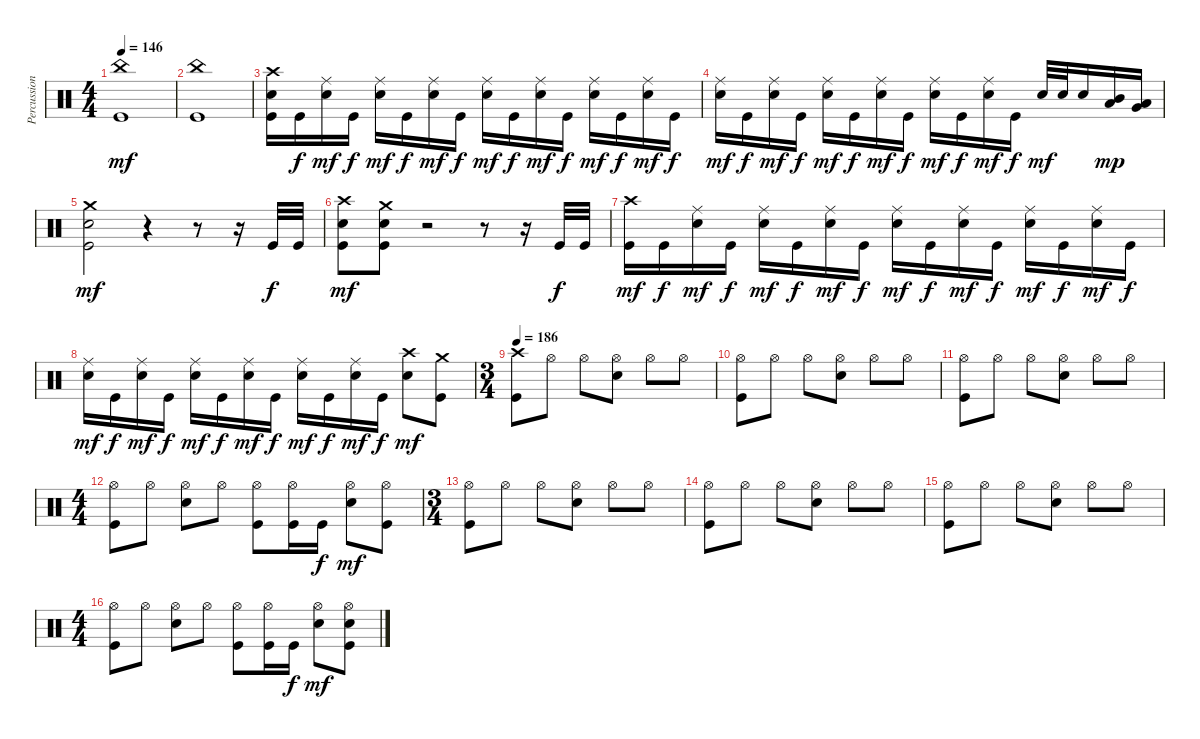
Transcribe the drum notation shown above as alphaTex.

\track ("Percussions" "Percussion") {instrument percussion}
\staff {score}
\articulation defaults
\ts (4 4)
\tempo 146
\clef neutral
\ks c
("Kick (hit)" "China (hit)").1{dy mf} |
("Kick (hit)" "China (hit)").1 |
("Kick (hit)" "Electric Snare (hit)" "Crash high (hit)").16 "Kick (hit)".16{dy f} ("Electric Snare (hit)" "Ride (middle)").16{dy mf} "Kick (hit)".16{dy f} ("Electric Snare (hit)" "Ride (middle)").16{dy mf} "Kick (hit)".16{dy f} ("Electric Snare (hit)" "Ride (middle)").16{dy mf} "Kick (hit)".16{dy f} ("Electric Snare (hit)" "Ride (middle)").16{dy mf} "Kick (hit)".16{dy f} ("Electric Snare (hit)" "Ride (middle)").16{dy mf} "Kick (hit)".16{dy f} ("Electric Snare (hit)" "Ride (middle)").16{dy mf} "Kick (hit)".16{dy f} ("Electric Snare (hit)" "Ride (middle)").16{dy mf} "Kick (hit)".16{dy f} |
("Electric Snare (hit)" "Ride (middle)").16{dy mf} "Kick (hit)".16{dy f} ("Electric Snare (hit)" "Ride (middle)").16{dy mf} "Kick (hit)".16{dy f} ("Electric Snare (hit)" "Ride (middle)").16{dy mf} "Kick (hit)".16{dy f} ("Electric Snare (hit)" "Ride (middle)").16{dy mf} "Kick (hit)".16{dy f} ("Electric Snare (hit)" "Ride (middle)").16{dy mf} "Kick (hit)".16{dy f} ("Electric Snare (hit)" "Ride (middle)").16{dy mf} "Kick (hit)".16{dy f} "Electric Snare (hit)".32{dy mf} "Electric Snare (hit)".32 "Electric Snare (hit)".16 ("Low Tom (hit)" "Mid Tom (hit)").16{dy mp} ("Very Low Tom (hit)" "Low Tom (hit)").16 |
("Kick (hit)" "Electric Snare (hit)" "Crash medium (hit)").2{dy mf} r.4 r.8 r.16 "Kick (hit)".32{dy f} "Kick (hit)".32 |
("Kick (hit)" "Electric Snare (hit)" "Crash high (hit)").8{dy mf} ("Kick (hit)" "Electric Snare (hit)" "Crash medium (hit)").8 r.2 r.8 r.16 "Kick (hit)".32{dy f} "Kick (hit)".32 |
("Kick (hit)" "Crash high (hit)").16{dy mf} "Kick (hit)".16{dy f} ("Electric Snare (hit)" "Ride (middle)").16{dy mf} "Kick (hit)".16{dy f} ("Electric Snare (hit)" "Ride (middle)").16{dy mf} "Kick (hit)".16{dy f} ("Electric Snare (hit)" "Ride (middle)").16{dy mf} "Kick (hit)".16{dy f} ("Electric Snare (hit)" "Ride (middle)").16{dy mf} "Kick (hit)".16{dy f} ("Electric Snare (hit)" "Ride (middle)").16{dy mf} "Kick (hit)".16{dy f} ("Electric Snare (hit)" "Ride (middle)").16{dy mf} "Kick (hit)".16{dy f} ("Electric Snare (hit)" "Ride (middle)").16{dy mf} "Kick (hit)".16{dy f} |
("Electric Snare (hit)" "Ride (middle)").16{dy mf} "Kick (hit)".16{dy f} ("Electric Snare (hit)" "Ride (middle)").16{dy mf} "Kick (hit)".16{dy f} ("Electric Snare (hit)" "Ride (middle)").16{dy mf} "Kick (hit)".16{dy f} ("Electric Snare (hit)" "Ride (middle)").16{dy mf} "Kick (hit)".16{dy f} ("Electric Snare (hit)" "Ride (middle)").16{dy mf} "Kick (hit)".16{dy f} ("Electric Snare (hit)" "Ride (middle)").16{dy mf} "Kick (hit)".16{dy f} ("Electric Snare (hit)" "Crash high (hit)").8{dy mf} ("Kick (hit)" "Crash medium (hit)").8 |
\ts (3 4)
\tempo 186
("Kick (hit)" "Crash high (hit)").8 "Hi-Hat (open)".8 "Hi-Hat (open)".8 ("Electric Snare (hit)" "Hi-Hat (open)").8 "Hi-Hat (open)".8 "Hi-Hat (open)".8 |
("Kick (hit)" "Hi-Hat (open)").8 "Hi-Hat (open)".8 "Hi-Hat (open)".8 ("Electric Snare (hit)" "Hi-Hat (open)").8 "Hi-Hat (open)".8 "Hi-Hat (open)".8 |
("Kick (hit)" "Hi-Hat (open)").8 "Hi-Hat (open)".8 "Hi-Hat (open)".8 ("Electric Snare (hit)" "Hi-Hat (open)").8 "Hi-Hat (open)".8 "Hi-Hat (open)".8 |
\ts (4 4)
("Kick (hit)" "Hi-Hat (open)").8 "Hi-Hat (open)".8 ("Electric Snare (hit)" "Hi-Hat (open)").8 "Hi-Hat (open)".8 ("Kick (hit)" "Hi-Hat (open)").8 ("Kick (hit)" "Hi-Hat (open)").16 "Kick (hit)".16{dy f} ("Electric Snare (hit)" "Hi-Hat (open)").8{dy mf} ("Kick (hit)" "Hi-Hat (open)").8 |
\ts (3 4)
("Kick (hit)" "Hi-Hat (open)").8 "Hi-Hat (open)".8 "Hi-Hat (open)".8 ("Electric Snare (hit)" "Hi-Hat (open)").8 "Hi-Hat (open)".8 "Hi-Hat (open)".8 |
("Kick (hit)" "Hi-Hat (open)").8 "Hi-Hat (open)".8 "Hi-Hat (open)".8 ("Electric Snare (hit)" "Hi-Hat (open)").8 "Hi-Hat (open)".8 "Hi-Hat (open)".8 |
("Kick (hit)" "Hi-Hat (open)").8 "Hi-Hat (open)".8 "Hi-Hat (open)".8 ("Electric Snare (hit)" "Hi-Hat (open)").8 "Hi-Hat (open)".8 "Hi-Hat (open)".8 |
\ts (4 4)
("Kick (hit)" "Hi-Hat (open)").8 "Hi-Hat (open)".8 ("Electric Snare (hit)" "Hi-Hat (open)").8 "Hi-Hat (open)".8 ("Kick (hit)" "Hi-Hat (open)").8 ("Kick (hit)" "Hi-Hat (open)").16 "Kick (hit)".16{dy f} ("Electric Snare (hit)" "Hi-Hat (open)").8{dy mf} ("Kick (hit)" "Electric Snare (hit)" "Hi-Hat (open)").8
